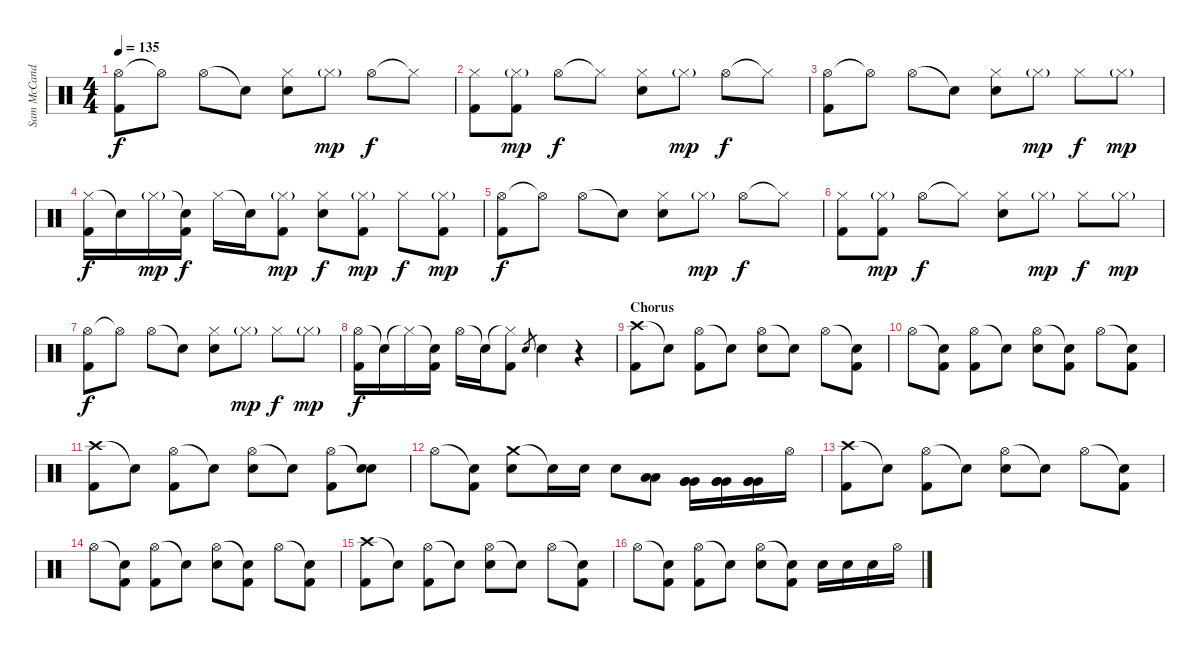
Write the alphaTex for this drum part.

\track ("Sam McCandless (Drums)" "Sam McCand") {instrument percussion}
\staff {score}
\articulation defaults
\ts (4 4)
\tempo 135
\clef neutral
\ks c
("Hi-Hat (open)" "Kick (hit) 2").8{dy f} "Hi-Hat (open)"{t}.8 "Hi-Hat (open)".8 "Snare (hit)"{t}.8 ("Hi-Hat (closed)" "Electric Snare (hit)").8 "Hi-Hat (closed)"{g}.8{dy mp} "Hi-Hat (open)".8{dy f} "Hi-Hat (closed)"{t}.8 |
("Hi-Hat (closed)" "Kick (hit) 2").8 ("Hi-Hat (closed)"{g} "Kick (hit) 2").8{dy mp} "Hi-Hat (open)".8{dy f} "Hi-Hat (closed)"{t}.8 ("Hi-Hat (closed)" "Electric Snare (hit)").8 "Hi-Hat (closed)"{g}.8{dy mp} "Hi-Hat (open)".8{dy f} "Hi-Hat (closed)"{t}.8 |
("Hi-Hat (open)" "Kick (hit) 2").8 "Hi-Hat (open)"{t}.8 "Hi-Hat (open)".8 "Snare (hit)"{t}.8 ("Hi-Hat (closed)" "Electric Snare (hit)").8 "Hi-Hat (closed)"{g}.8{dy mp} "Hi-Hat (closed)".8{dy f} "Hi-Hat (closed)"{g}.8{dy mp} |
("Hi-Hat (closed)" "Kick (hit) 2").16{dy f} "Snare (hit)"{t}.16 "Hi-Hat (closed)"{g}.16{dy mp} ("Snare (hit)"{t} "Kick (hit) 2").16{dy f} "Hi-Hat (closed)".16 "Snare (hit)"{t}.16 ("Hi-Hat (closed)"{g} "Kick (hit) 2").8{dy mp} ("Hi-Hat (closed)" "Electric Snare (hit)").8{dy f} ("Hi-Hat (closed)"{g} "Kick (hit) 2").8{dy mp} "Hi-Hat (closed)".8{dy f} ("Hi-Hat (closed)"{g} "Kick (hit) 2").8{dy mp} |
("Hi-Hat (open)" "Kick (hit) 2").8{dy f} "Hi-Hat (open)"{t}.8 "Hi-Hat (open)".8 "Snare (hit)"{t}.8 ("Hi-Hat (closed)" "Electric Snare (hit)").8 "Hi-Hat (closed)"{g}.8{dy mp} "Hi-Hat (open)".8{dy f} "Hi-Hat (closed)"{t}.8 |
("Hi-Hat (closed)" "Kick (hit) 2").8 ("Hi-Hat (closed)"{g} "Kick (hit) 2").8{dy mp} "Hi-Hat (open)".8{dy f} "Hi-Hat (closed)"{t}.8 ("Hi-Hat (closed)" "Electric Snare (hit)").8 "Hi-Hat (closed)"{g}.8{dy mp} "Hi-Hat (closed)".8{dy f} "Hi-Hat (closed)"{g}.8{dy mp} |
("Hi-Hat (open)" "Kick (hit) 2").8{dy f} "Hi-Hat (open)"{t}.8 "Hi-Hat (open)".8 "Snare (hit)"{t}.8 ("Hi-Hat (closed)" "Electric Snare (hit)").8 "Hi-Hat (closed)"{g}.8{dy mp} "Hi-Hat (closed)".8{dy f} "Hi-Hat (closed)"{g}.8{dy mp} |
("Hi-Hat (open)" "Kick (hit) 2").16{dy f} "Snare (hit)"{t}.16 "Hi-Hat (closed)"{t}.16 ("Snare (hit)"{t} "Kick (hit) 2").16 "Hi-Hat (open)".16 "Snare (hit)"{t}.16 ("Hi-Hat (closed)"{t} "Kick (hit) 2").8 "Electric Snare (hit)".8{gr} "Electric Snare (hit)".4 r.4 |
\section ("" "Chorus")
("Crash high (hit)" "Kick (hit) 2").8 "Snare (hit)"{t}.8 ("Hi-Hat (open)" "Kick (hit) 2").8 "Snare (hit)"{t}.8 ("Hi-Hat (open)" "Electric Snare (hit)").8 "Snare (hit)"{t}.8 "Hi-Hat (open)".8 ("Snare (hit)"{t} "Kick (hit) 2").8 |
"Hi-Hat (open)".8 ("Snare (hit)"{t} "Kick (hit) 2").8 ("Hi-Hat (open)" "Kick (hit) 2").8 "Snare (hit)"{t}.8 ("Hi-Hat (open)" "Electric Snare (hit)").8 ("Snare (hit)"{t} "Kick (hit) 2").8 "Hi-Hat (open)".8 ("Snare (hit)"{t} "Kick (hit) 2").8 |
("Crash high (hit)" "Kick (hit) 2").8 "Snare (hit)"{t}.8 ("Hi-Hat (open)" "Kick (hit) 2").8 "Snare (hit)"{t}.8 ("Hi-Hat (open)" "Electric Snare (hit)").8 "Snare (hit)"{t}.8 ("Hi-Hat (open)" "Kick (hit) 2").8 ("Snare (hit)"{t} "Electric Snare (hit)").8 |
"Hi-Hat (open)".8 ("Snare (hit)"{t} "Kick (hit) 2").8 ("Crash medium (hit)" "Electric Snare (hit)").8 "Snare (hit)"{t}.16 "Electric Snare (hit)".16 "Electric Snare (hit)".8 ("Low Tom (hit)" "Low Tom (hit)").8 ("Very Low Tom (hit)" "Very Low Tom (hit)" "Very Low Tom (hit)").16 ("Very Low Tom (hit)" "Very Low Tom (hit)" "Very Low Tom (hit)").16 ("Very Low Tom (hit)" "Very Low Tom (hit)" "Very Low Tom (hit)").16 "Hi-Hat (open)".16 |
("Crash high (hit)" "Kick (hit) 2").8 "Snare (hit)"{t}.8 ("Hi-Hat (open)" "Kick (hit) 2").8 "Snare (hit)"{t}.8 ("Hi-Hat (open)" "Electric Snare (hit)").8 "Snare (hit)"{t}.8 "Hi-Hat (open)".8 ("Snare (hit)"{t} "Kick (hit) 2").8 |
"Hi-Hat (open)".8 ("Snare (hit)"{t} "Kick (hit) 2").8 ("Hi-Hat (open)" "Kick (hit) 2").8 "Snare (hit)"{t}.8 ("Hi-Hat (open)" "Electric Snare (hit)").8 ("Snare (hit)"{t} "Kick (hit) 2").8 "Hi-Hat (open)".8 ("Snare (hit)"{t} "Kick (hit) 2").8 |
("Crash high (hit)" "Kick (hit) 2").8 "Snare (hit)"{t}.8 ("Hi-Hat (open)" "Kick (hit) 2").8 "Snare (hit)"{t}.8 ("Hi-Hat (open)" "Electric Snare (hit)").8 "Snare (hit)"{t}.8 "Hi-Hat (open)".8 ("Snare (hit)"{t} "Kick (hit) 2").8 |
"Hi-Hat (open)".8 ("Snare (hit)"{t} "Kick (hit) 2").8 ("Hi-Hat (open)" "Kick (hit) 2").8 "Snare (hit)"{t}.8 ("Hi-Hat (open)" "Electric Snare (hit)").8 ("Snare (hit)"{t} "Kick (hit) 2").8 "Electric Snare (hit)".16 "Electric Snare (hit)".16 "Electric Snare (hit)".16 "Hi-Hat (open)".16
